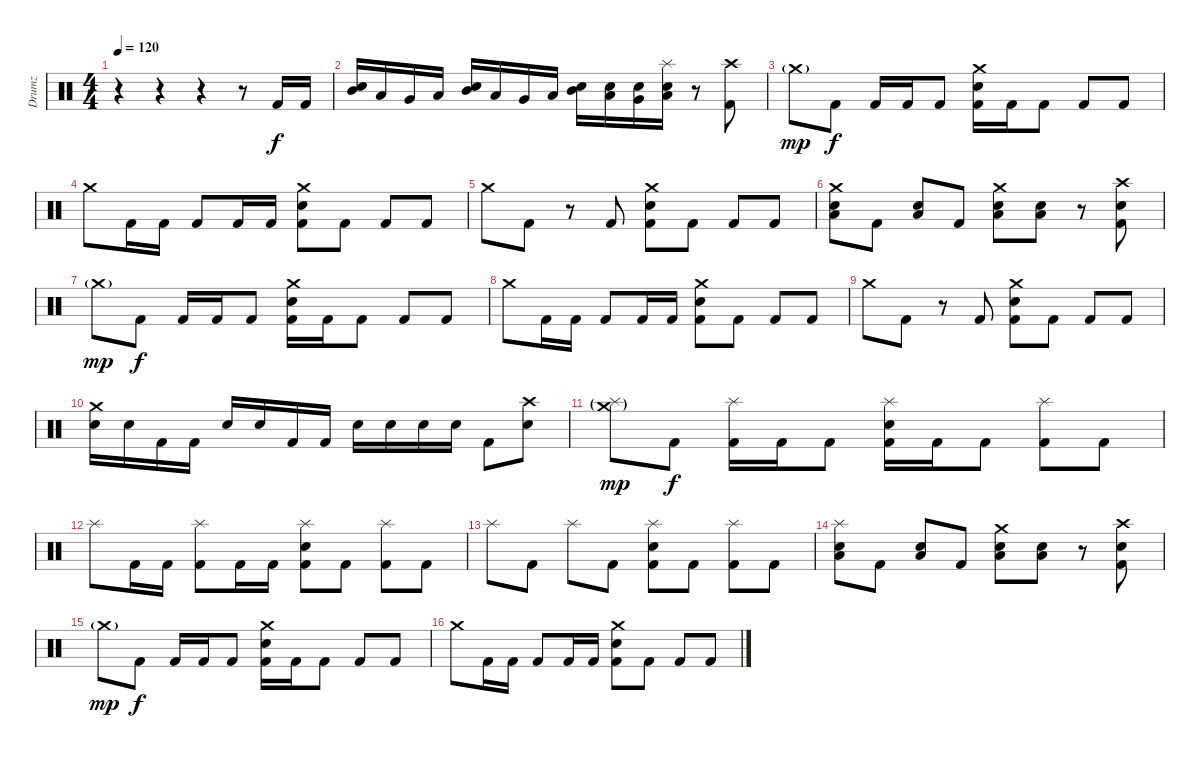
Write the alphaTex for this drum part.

\track ("Drumz" "Drumz") {instrument percussion}
\staff {score}
\articulation defaults
\ts (4 4)
\tempo 120
\clef neutral
\ks c
r.4{dy f volume 4} r.4 r.4 r.8{volume 15} "Kick (hit) 2".16 "Kick (hit) 2".16 |
("Mid Tom (hit)" "Electric Snare (hit)").16 "Low Tom (hit)".16 "Very Low Tom (hit)".16 "Low Floor Tom (hit)".16 ("Mid Tom (hit)" "Electric Snare (hit)").16 "Low Tom (hit)".16 "Very Low Tom (hit)".16 "Low Floor Tom (hit)".16 ("Electric Snare (hit)" "Mid Tom (hit)").16 ("Electric Snare (hit)" "Low Tom (hit)").16 ("Electric Snare (hit)" "Very Low Tom (hit)").16 ("Electric Snare (hit)" "Low Floor Tom (hit)" "Splash (hit)").16 r.8 ("Crash high (hit)" "Kick (hit) 2").8 |
"Crash medium (hit)"{g}.8{dy mp} "Kick (hit) 2".8{dy f} "Kick (hit) 2".16 "Kick (hit) 2".16 "Kick (hit) 2".8 ("Kick (hit) 2" "Crash medium (hit)" "Electric Snare (hit)").16 "Kick (hit) 2".16 "Kick (hit) 2".8 "Kick (hit) 2".8 "Kick (hit) 2".8 |
"Crash medium (hit)".8 "Kick (hit) 2".16 "Kick (hit) 2".16 "Kick (hit) 2".8 "Kick (hit) 2".16 "Kick (hit) 2".16 ("Kick (hit) 2" "Crash medium (hit)" "Electric Snare (hit)").8 "Kick (hit) 2".8 "Kick (hit) 2".8 "Kick (hit) 2".8 |
"Crash medium (hit)".8 "Kick (hit) 2".8 r.8 "Kick (hit) 2".8 ("Kick (hit) 2" "Crash medium (hit)" "Electric Snare (hit)").8 "Kick (hit) 2".8 "Kick (hit) 2".8 "Kick (hit) 2".8 |
("Crash medium (hit)" "Electric Snare (hit)" "Low Floor Tom (hit)").8 "Kick (hit) 2".8 ("Electric Snare (hit)" "Low Floor Tom (hit)").8 "Kick (hit) 2".8 ("Electric Snare (hit)" "Crash medium (hit)" "Low Floor Tom (hit)").8 ("Electric Snare (hit)" "Low Floor Tom (hit)").8 r.8 ("Crash high (hit)" "Kick (hit) 2" "Electric Snare (hit)").8 |
"Crash medium (hit)"{g}.8{dy mp} "Kick (hit) 2".8{dy f} "Kick (hit) 2".16 "Kick (hit) 2".16 "Kick (hit) 2".8 ("Kick (hit) 2" "Crash medium (hit)" "Electric Snare (hit)").16 "Kick (hit) 2".16 "Kick (hit) 2".8 "Kick (hit) 2".8 "Kick (hit) 2".8 |
"Crash medium (hit)".8 "Kick (hit) 2".16 "Kick (hit) 2".16 "Kick (hit) 2".8 "Kick (hit) 2".16 "Kick (hit) 2".16 ("Kick (hit) 2" "Crash medium (hit)" "Electric Snare (hit)").8 "Kick (hit) 2".8 "Kick (hit) 2".8 "Kick (hit) 2".8 |
"Crash medium (hit)".8 "Kick (hit) 2".8 r.8 "Kick (hit) 2".8 ("Kick (hit) 2" "Crash medium (hit)" "Electric Snare (hit)").8 "Kick (hit) 2".8 "Kick (hit) 2".8 "Kick (hit) 2".8 |
("Electric Snare (hit)" "Crash medium (hit)").16 "Electric Snare (hit)".16 "Kick (hit) 2".16 "Kick (hit) 2".16 "Electric Snare (hit)".16 "Electric Snare (hit)".16 "Kick (hit) 2".16 "Kick (hit) 2".16 "Electric Snare (hit)".16 "Electric Snare (hit)".16 "Electric Snare (hit)".16 "Electric Snare (hit)".16 "Kick (hit) 2".8 ("Electric Snare (hit)" "Crash high (hit)").8 |
("Crash medium (hit)"{g} "Splash (hit)"{g}).8{dy mp} "Kick (hit) 2".8{dy f} ("Splash (hit)" "Kick (hit) 2").16 "Kick (hit) 2".16 "Kick (hit) 2".8 ("Kick (hit) 2" "Splash (hit)" "Electric Snare (hit)").16 "Kick (hit) 2".16 "Kick (hit) 2".8 ("Kick (hit) 2" "Splash (hit)").8 "Kick (hit) 2".8 |
"Splash (hit)".8 "Kick (hit) 2".16 "Kick (hit) 2".16 ("Kick (hit) 2" "Splash (hit)").8 "Kick (hit) 2".16 "Kick (hit) 2".16 ("Kick (hit) 2" "Splash (hit)" "Electric Snare (hit)").8 "Kick (hit) 2".8 ("Kick (hit) 2" "Splash (hit)").8 "Kick (hit) 2".8 |
"Splash (hit)".8 "Kick (hit) 2".8 "Splash (hit)".8 "Kick (hit) 2".8 ("Kick (hit) 2" "Splash (hit)" "Electric Snare (hit)").8 "Kick (hit) 2".8 ("Kick (hit) 2" "Splash (hit)").8 "Kick (hit) 2".8 |
("Splash (hit)" "Electric Snare (hit)" "Low Floor Tom (hit)").8 "Kick (hit) 2".8 ("Electric Snare (hit)" "Low Floor Tom (hit)").8 "Kick (hit) 2".8 ("Electric Snare (hit)" "Crash medium (hit)" "Low Floor Tom (hit)").8 ("Electric Snare (hit)" "Low Floor Tom (hit)").8 r.8 ("Crash high (hit)" "Kick (hit) 2" "Electric Snare (hit)").8 |
"Crash medium (hit)"{g}.8{dy mp} "Kick (hit) 2".8{dy f} "Kick (hit) 2".16 "Kick (hit) 2".16 "Kick (hit) 2".8 ("Kick (hit) 2" "Crash medium (hit)" "Electric Snare (hit)").16 "Kick (hit) 2".16 "Kick (hit) 2".8 "Kick (hit) 2".8 "Kick (hit) 2".8 |
"Crash medium (hit)".8 "Kick (hit) 2".16 "Kick (hit) 2".16 "Kick (hit) 2".8 "Kick (hit) 2".16 "Kick (hit) 2".16 ("Kick (hit) 2" "Crash medium (hit)" "Electric Snare (hit)").8 "Kick (hit) 2".8 "Kick (hit) 2".8 "Kick (hit) 2".8
